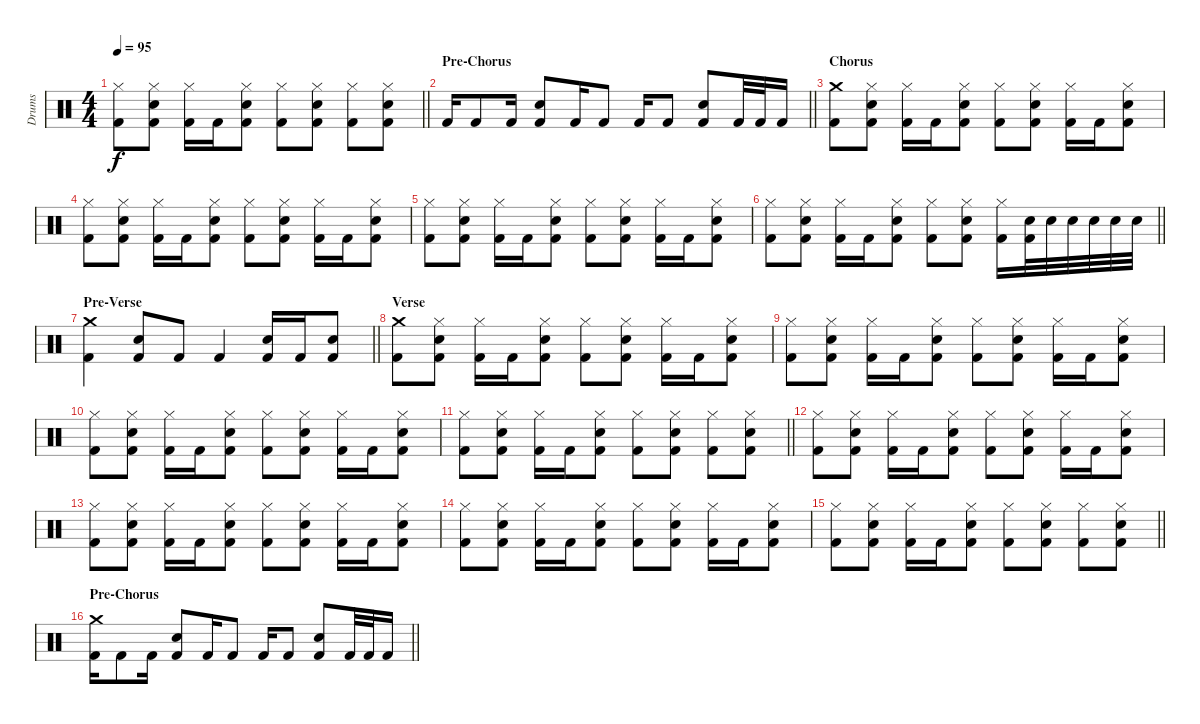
\track ("Drums" "Drums") {instrument percussion}
\staff {score}
\articulation defaults
\ts (4 4)
\tempo 95
\clef neutral
\barLineRight lightlight
\ks c
("Hi-Hat (closed)" "Kick (hit) 2").8{dy f} ("Hi-Hat (closed)" "Snare (hit) 2" "Kick (hit) 2").8 ("Hi-Hat (closed)" "Kick (hit) 2").16 "Kick (hit) 2".16 ("Hi-Hat (closed)" "Snare (hit) 2" "Kick (hit) 2").8 ("Hi-Hat (closed)" "Kick (hit) 2").8 ("Hi-Hat (closed)" "Snare (hit) 2" "Kick (hit) 2").8 ("Hi-Hat (closed)" "Kick (hit) 2").8 ("Hi-Hat (closed)" "Snare (hit) 2" "Kick (hit) 2").8 |
\section ("" "Pre-Chorus")
\barLineRight lightlight "Kick (hit) 2".16 "Kick (hit) 2".8 "Kick (hit) 2".16
("Snare (hit) 2" "Kick (hit) 2").8 "Kick (hit) 2".16 "Kick (hit) 2".8 "Kick (hit) 2".16 "Kick (hit) 2".8 ("Snare (hit) 2" "Kick (hit) 2").8 "Kick (hit) 2".32 "Kick (hit) 2".32 "Kick (hit) 2".16 |
\section ("" "Chorus")
("Crash medium (hit)" "Kick (hit) 2").8 ("Hi-Hat (closed)" "Snare (hit) 2" "Kick (hit) 2").8 ("Hi-Hat (closed)" "Kick (hit) 2").16 "Kick (hit) 2".16 ("Hi-Hat (closed)" "Snare (hit) 2" "Kick (hit) 2").8 ("Hi-Hat (closed)" "Kick (hit) 2").8 ("Hi-Hat (closed)" "Snare (hit) 2" "Kick (hit) 2").8 ("Hi-Hat (closed)" "Kick (hit) 2").16 "Kick (hit) 2".16 ("Hi-Hat (closed)" "Snare (hit) 2" "Kick (hit) 2").8 |
("Hi-Hat (closed)" "Kick (hit) 2").8 ("Hi-Hat (closed)" "Snare (hit) 2" "Kick (hit) 2").8 ("Hi-Hat (closed)" "Kick (hit) 2").16 "Kick (hit) 2".16 ("Hi-Hat (closed)" "Snare (hit) 2" "Kick (hit) 2").8 ("Hi-Hat (closed)" "Kick (hit) 2").8 ("Hi-Hat (closed)" "Snare (hit) 2" "Kick (hit) 2").8 ("Hi-Hat (closed)" "Kick (hit) 2").16 "Kick (hit) 2".16 ("Hi-Hat (closed)" "Snare (hit) 2" "Kick (hit) 2").8 |
("Hi-Hat (closed)" "Kick (hit) 2").8 ("Hi-Hat (closed)" "Snare (hit) 2" "Kick (hit) 2").8 ("Hi-Hat (closed)" "Kick (hit) 2").16 "Kick (hit) 2".16 ("Hi-Hat (closed)" "Snare (hit) 2" "Kick (hit) 2").8 ("Hi-Hat (closed)" "Kick (hit) 2").8 ("Hi-Hat (closed)" "Snare (hit) 2" "Kick (hit) 2").8 ("Hi-Hat (closed)" "Kick (hit) 2").16 "Kick (hit) 2".16 ("Hi-Hat (closed)" "Snare (hit) 2" "Kick (hit) 2").8 |
\barLineRight lightlight
("Hi-Hat (closed)" "Kick (hit) 2").8 ("Hi-Hat (closed)" "Snare (hit) 2" "Kick (hit) 2").8 ("Hi-Hat (closed)" "Kick (hit) 2").16 "Kick (hit) 2".16 ("Hi-Hat (closed)" "Snare (hit) 2" "Kick (hit) 2").8 ("Hi-Hat (closed)" "Kick (hit) 2").8 ("Hi-Hat (closed)" "Snare (hit) 2" "Kick (hit) 2").8 ("Hi-Hat (closed)" "Kick (hit) 2").16 ("Snare (hit) 2" "Kick (hit) 2").32 "Snare (hit) 2".32 "Snare (hit) 2".32 "Snare (hit) 2".32 "Snare (hit) 2".32 "Snare (hit) 2".32 |
\section ("" "Pre-Verse")
\barLineRight lightlight
("Crash medium (hit)" "Kick (hit) 2").4 ("Snare (hit) 2" "Kick (hit) 2").8 "Kick (hit) 2".8 "Kick (hit) 2".4 ("Snare (hit) 2" "Kick (hit) 2").16 "Kick (hit) 2".16 ("Snare (hit) 2" "Kick (hit) 2").8 |
\section ("" "Verse")
("Crash medium (hit)" "Kick (hit) 2").8 ("Hi-Hat (closed)" "Snare (hit) 2" "Kick (hit) 2").8 ("Hi-Hat (closed)" "Kick (hit) 2").16 "Kick (hit) 2".16 ("Hi-Hat (closed)" "Snare (hit) 2" "Kick (hit) 2").8 ("Hi-Hat (closed)" "Kick (hit) 2").8 ("Hi-Hat (closed)" "Snare (hit) 2" "Kick (hit) 2").8 ("Hi-Hat (closed)" "Kick (hit) 2").16 "Kick (hit) 2".16 ("Hi-Hat (closed)" "Snare (hit) 2" "Kick (hit) 2").8 |
("Hi-Hat (closed)" "Kick (hit) 2").8 ("Hi-Hat (closed)" "Snare (hit) 2" "Kick (hit) 2").8 ("Hi-Hat (closed)" "Kick (hit) 2").16 "Kick (hit) 2".16 ("Hi-Hat (closed)" "Snare (hit) 2" "Kick (hit) 2").8 ("Hi-Hat (closed)" "Kick (hit) 2").8 ("Hi-Hat (closed)" "Snare (hit) 2" "Kick (hit) 2").8 ("Hi-Hat (closed)" "Kick (hit) 2").16 "Kick (hit) 2".16 ("Hi-Hat (closed)" "Snare (hit) 2" "Kick (hit) 2").8 |
("Hi-Hat (closed)" "Kick (hit) 2").8 ("Hi-Hat (closed)" "Snare (hit) 2" "Kick (hit) 2").8 ("Hi-Hat (closed)" "Kick (hit) 2").16 "Kick (hit) 2".16 ("Hi-Hat (closed)" "Snare (hit) 2" "Kick (hit) 2").8 ("Hi-Hat (closed)" "Kick (hit) 2").8 ("Hi-Hat (closed)" "Snare (hit) 2" "Kick (hit) 2").8 ("Hi-Hat (closed)" "Kick (hit) 2").16 "Kick (hit) 2".16 ("Hi-Hat (closed)" "Snare (hit) 2" "Kick (hit) 2").8 |
\barLineRight lightlight
("Hi-Hat (closed)" "Kick (hit) 2").8 ("Hi-Hat (closed)" "Snare (hit) 2" "Kick (hit) 2").8 ("Hi-Hat (closed)" "Kick (hit) 2").16 "Kick (hit) 2".16 ("Hi-Hat (closed)" "Snare (hit) 2" "Kick (hit) 2").8 ("Hi-Hat (closed)" "Kick (hit) 2").8 ("Hi-Hat (closed)" "Snare (hit) 2" "Kick (hit) 2").8 ("Hi-Hat (closed)" "Kick (hit) 2").8 ("Hi-Hat (closed)" "Snare (hit) 2" "Kick (hit) 2").8 |
("Hi-Hat (closed)" "Kick (hit) 2").8 ("Hi-Hat (closed)" "Snare (hit) 2" "Kick (hit) 2").8 ("Hi-Hat (closed)" "Kick (hit) 2").16 "Kick (hit) 2".16 ("Hi-Hat (closed)" "Snare (hit) 2" "Kick (hit) 2").8 ("Hi-Hat (closed)" "Kick (hit) 2").8 ("Hi-Hat (closed)" "Snare (hit) 2" "Kick (hit) 2").8 ("Hi-Hat (closed)" "Kick (hit) 2").16 "Kick (hit) 2".16 ("Hi-Hat (closed)" "Snare (hit) 2" "Kick (hit) 2").8 |
("Hi-Hat (closed)" "Kick (hit) 2").8 ("Hi-Hat (closed)" "Snare (hit) 2" "Kick (hit) 2").8 ("Hi-Hat (closed)" "Kick (hit) 2").16 "Kick (hit) 2".16 ("Hi-Hat (closed)" "Snare (hit) 2" "Kick (hit) 2").8 ("Hi-Hat (closed)" "Kick (hit) 2").8 ("Hi-Hat (closed)" "Snare (hit) 2" "Kick (hit) 2").8 ("Hi-Hat (closed)" "Kick (hit) 2").16 "Kick (hit) 2".16 ("Hi-Hat (closed)" "Snare (hit) 2" "Kick (hit) 2").8 |
("Hi-Hat (closed)" "Kick (hit) 2").8 ("Hi-Hat (closed)" "Snare (hit) 2" "Kick (hit) 2").8 ("Hi-Hat (closed)" "Kick (hit) 2").16 "Kick (hit) 2".16 ("Hi-Hat (closed)" "Snare (hit) 2" "Kick (hit) 2").8 ("Hi-Hat (closed)" "Kick (hit) 2").8 ("Hi-Hat (closed)" "Snare (hit) 2" "Kick (hit) 2").8 ("Hi-Hat (closed)" "Kick (hit) 2").16 "Kick (hit) 2".16 ("Hi-Hat (closed)" "Snare (hit) 2" "Kick (hit) 2").8 |
\barLineRight lightlight
("Hi-Hat (closed)" "Kick (hit) 2").8 ("Hi-Hat (closed)" "Snare (hit) 2" "Kick (hit) 2").8 ("Hi-Hat (closed)" "Kick (hit) 2").16 "Kick (hit) 2".16 ("Hi-Hat (closed)" "Snare (hit) 2" "Kick (hit) 2").8 ("Hi-Hat (closed)" "Kick (hit) 2").8 ("Hi-Hat (closed)" "Snare (hit) 2" "Kick (hit) 2").8 ("Hi-Hat (closed)" "Kick (hit) 2").8 ("Hi-Hat (closed)" "Snare (hit) 2" "Kick (hit) 2").8 |
\section ("" "Pre-Chorus")
\barLineRight lightlight
("Crash medium (hit)" "Kick (hit) 2").16 "Kick (hit) 2".8 "Kick (hit) 2".16 ("Snare (hit) 2" "Kick (hit) 2").8 "Kick (hit) 2".16 "Kick (hit) 2".8 "Kick (hit) 2".16 "Kick (hit) 2".8 ("Snare (hit) 2" "Kick (hit) 2").8 "Kick (hit) 2".32 "Kick (hit) 2".32 "Kick (hit) 2".16
